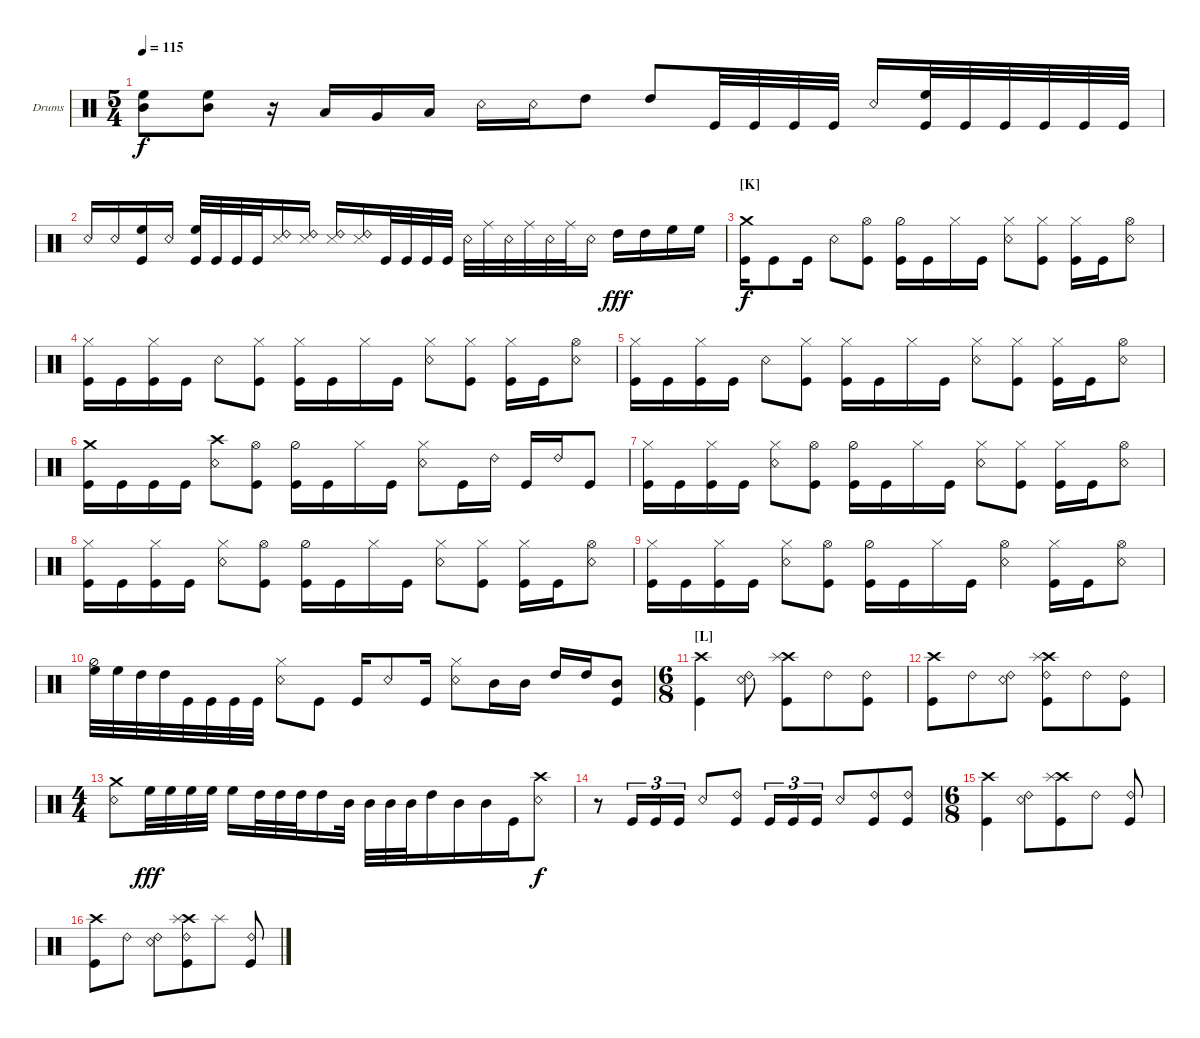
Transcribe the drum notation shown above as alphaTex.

\defaultSystemsLayout 4
\bracketExtendMode groupsimilarinstruments
\firstSystemTrackNameOrientation horizontal
\otherSystemsTrackNameOrientation horizontal
\track ("Drumkit" "Drums") {instrument percussion}
\staff {score}
\articulation defaults
\ts (5 4)
\tempo 115
\clef neutral
\scale
0.263889
\ks c
("High Floor Tom (hit)" "Mid Tom (hit)").8{dy f} ("High Floor Tom (hit)" "Mid Tom (hit)").8 r.16 "Low Tom (hit)".16 "Very Low Tom (hit)".16 "Low Tom (hit)".16 "Snare (rim shot)".16 "Snare (rim shot)".16 "High Tom (hit)".8 "High Tom (hit)".8 "Kick (hit)".32 "Kick (hit)".32 "Kick (hit)".32 "Kick (hit)".32 "Snare (rim shot)".16 ("High Floor Tom (hit)" "Kick (hit)").32 "Kick (hit)".32 "Kick (hit)".32 "Kick (hit)".32 "Kick (hit)".32 "Kick (hit)".32 |
\scale
0.263889 "Snare (rim shot)".16 "Snare (rim shot)".16 ("High Floor Tom (hit)" "Kick (hit)").16 "Snare (rim shot)".16 ("High Floor Tom (hit)" "Kick (hit)").32 "Kick (hit)".32 "Kick (hit)".32 "Kick (hit)".32 ("Snare (side stick) 3" "Ride (bell) 2").16 ("Snare (side stick) 3" "Ride (bell) 2").16 ("Snare (side stick) 3" "Ride (bell) 2").16 ("Snare (side stick) 3" "Ride (bell) 2").16 "Kick (hit)".32 "Kick (hit)".32 "Kick (hit)".32 "Kick (hit)".32 "Snare (rim shot)".32 "Ride (middle)".32 "Snare (rim shot)".32 "Ride (middle)".32 "Snare (rim shot)".32 "Ride (middle)".32 "Snare (rim shot)".16 "High Tom (hit)".16{dy fff} "High Tom (hit)".16 "High Floor Tom (hit)".16 "High Floor Tom (hit)".16 |
\section ("K" "")
\scale
0.333333 ("Kick (hit)" "Crash medium (hit)").16{dy f} "Kick (hit)".8 "Kick (hit)".16 "Snare (rim shot)".8 ("Hi-Hat (open)" "Kick (hit)").8 ("Kick (hit)" "Hi-Hat (half)").16 "Kick (hit)".16 "Hi-Hat (closed)".16 "Kick (hit)".16 ("Hi-Hat (closed)" "Snare (rim shot)").8 ("Hi-Hat (closed)" "Kick (hit)").8 ("Kick (hit)" "Hi-Hat (closed)").16 "Kick (hit)".16 ("Snare (rim shot)" "Hi-Hat (open)").8 |
\scale
0.333333 ("Kick (hit)" "Hi-Hat (closed)").16 "Kick (hit)".16 ("Kick (hit)" "Hi-Hat (closed)").16 "Kick (hit)".16 "Snare (rim shot)".8 ("Kick (hit)" "Hi-Hat (closed)").8 ("Kick (hit)" "Hi-Hat (closed)").16 "Kick (hit)".16 "Hi-Hat (closed)".16 "Kick (hit)".16 ("Hi-Hat (closed)" "Snare (rim shot)").8 ("Hi-Hat (closed)" "Kick (hit)").8 ("Kick (hit)" "Hi-Hat (closed)").16 "Kick (hit)".16 ("Snare (rim shot)" "Hi-Hat (open)").8 |
\scale
0.333333 ("Kick (hit)" "Hi-Hat (closed)").16 "Kick (hit)".16 ("Kick (hit)" "Hi-Hat (closed)").16 "Kick (hit)".16 "Snare (rim shot)".8 ("Kick (hit)" "Hi-Hat (closed)").8 ("Kick (hit)" "Hi-Hat (closed)").16 "Kick (hit)".16 "Hi-Hat (closed)".16 "Kick (hit)".16 ("Hi-Hat (closed)" "Snare (rim shot)").8 ("Hi-Hat (closed)" "Kick (hit)").8 ("Kick (hit)" "Hi-Hat (closed)").16 "Kick (hit)".16 ("Snare (rim shot)" "Hi-Hat (open)").8 |
\scale
0.333333 ("Kick (hit)" "Crash medium (hit)").16 "Kick (hit)".16 "Kick (hit)".16 "Kick (hit)".16 ("Snare (rim shot)" "Crash high (hit)").8 ("Kick (hit)" "Hi-Hat (open)").8 ("Kick (hit)" "Hi-Hat (half)").16 "Kick (hit)".16 "Hi-Hat (closed)".16 "Kick (hit)".16 ("Hi-Hat (closed)" "Snare (rim shot)").8 "Kick (hit)".16 "Ride (bell) 2".16 "Kick (hit)".16 "Ride (bell) 2".16 "Kick (hit)".8 |
\scale
0.333333 ("Kick (hit)" "Hi-Hat (closed)").16 "Kick (hit)".16 ("Kick (hit)" "Hi-Hat (closed)").16 "Kick (hit)".16 ("Snare (rim shot)" "Hi-Hat (closed)").8 ("Kick (hit)" "Hi-Hat (open)").8 ("Kick (hit)" "Hi-Hat (half)").16 "Kick (hit)".16 "Hi-Hat (closed)".16 "Kick (hit)".16 ("Snare (rim shot)" "Hi-Hat (closed)").8 ("Hi-Hat (closed)" "Kick (hit)").8 ("Kick (hit)" "Hi-Hat (closed)").16 "Kick (hit)".16 ("Snare (rim shot)" "Hi-Hat (open)").8 |
\scale
0.333333 ("Kick (hit)" "Hi-Hat (closed)").16 "Kick (hit)".16 ("Kick (hit)" "Hi-Hat (closed)").16 "Kick (hit)".16 ("Snare (rim shot)" "Hi-Hat (closed)").8 ("Kick (hit)" "Hi-Hat (open)").8 ("Kick (hit)" "Hi-Hat (half)").16 "Kick (hit)".16 "Hi-Hat (closed)".16 "Kick (hit)".16 ("Hi-Hat (closed)" "Snare (rim shot)").8 ("Hi-Hat (closed)" "Kick (hit)").8 ("Kick (hit)" "Hi-Hat (closed)").16 "Kick (hit)".16 ("Snare (rim shot)" "Hi-Hat (open)").8 |
\scale
0.263889 ("Kick (hit)" "Hi-Hat (closed)").16 "Kick (hit)".16 ("Kick (hit)" "Hi-Hat (closed)").16 "Kick (hit)".16 ("Snare (rim shot)" "Hi-Hat (closed)").8 ("Kick (hit)" "Hi-Hat (open)").8 ("Kick (hit)" "Hi-Hat (half)").16 "Kick (hit)".16 "Hi-Hat (closed)".16 "Kick (hit)".16 ("Hi-Hat (open)" "Snare (rim shot)").4 ("Kick (hit)" "Hi-Hat (closed)").16 "Kick (hit)".16 ("Snare (rim shot)" "Hi-Hat (open)").8 |
\scale
0.263889 ("Hi-Hat (half)" "High Floor Tom (hit)").32 "High Floor Tom (hit)".32 "High Tom (hit)".32 "High Tom (hit)".32 "Kick (hit)".32 "Kick (hit)".32 "Kick (hit)".32 "Kick (hit)".32 ("Snare (rim shot)" "Hi-Hat (closed)").8 "Kick (hit)".8 "Kick (hit)".16 "Snare (rim shot)".8 "Kick (hit)".16 ("Snare (rim shot)" "Hi-Hat (closed)").8 "Mid Tom (hit)".16 "Mid Tom (hit)".16 "High Tom (hit)".16 "High Tom (hit)".16 ("Mid Tom (hit)" "Kick (hit)").8 |
\ts (6 8)
\section ("L" "")
\scale
0.472222 ("Kick (hit)" "Crash high (hit)").4 ("Ride (bell) 2" "Snare (rim shot)").8 ("Crash high (hit)" "Splash (hit)" "Kick (hit)").8 "Ride (bell) 2".8 ("Ride (bell) 2" "Kick (hit)").8 |
\scale
0.263889 ("Kick (hit)" "Crash high (hit)").8 "Ride (bell) 2".8 ("Ride (bell) 2" "Snare (rim shot)").8 ("Crash high (hit)" "Splash (hit)" "Kick (hit)" "Ride (bell) 2").8 "Ride (bell) 2".8 ("Ride (bell) 2" "Kick (hit)").8 |
\ts (4 4)
\beaming (8 2 2 3 1)
\scale
0.472222 ("Snare (rim shot)" "Crash medium (hit)").8 "High Floor Tom (hit)".32{dy fff} "High Floor Tom (hit)".32 "High Floor Tom (hit)".32 "High Floor Tom (hit)".32 "High Floor Tom (hit)".16 "High Tom (hit)".32 "High Tom (hit)".32 "High Tom (hit)".32 "High Tom (hit)".16 "Mid Tom (hit)".32 "Mid Tom (hit)".32 "Mid Tom (hit)".32 "Mid Tom (hit)".32 "High Tom (hit)".16 "Mid Tom (hit)".16 "Mid Tom (hit)".16 "Kick (hit)".16 ("Snare (rim shot)" "Crash high (hit)").8{dy f} |
\beaming (8 2 3 3)
\scale
0.263889 r.8 "Kick (hit)".16{tu (3 2)} "Kick (hit)".16{tu (3 2)} "Kick (hit)".16{tu (3 2)} "Snare (rim shot)".8 ("Ride (bell) 2" "Kick (hit)").8 "Kick (hit)".16{tu (3 2)} "Kick (hit)".16{tu (3 2)} "Kick (hit)".16{tu (3 2)} "Snare (rim shot)".8 ("Ride (bell) 2" "Kick (hit)").8 ("Ride (bell) 2" "Kick (hit)").8 |
\ts (6 8)
\scale
0.390805 ("Kick (hit)" "Crash high (hit)").4 ("Ride (bell) 2" "Snare (rim shot)").8 ("Crash high (hit)" "Splash (hit)" "Kick (hit)").8 "Ride (bell) 2".8 ("Ride (bell) 2" "Kick (hit)").8 |
\scale
0.218391 ("Kick (hit)" "Crash high (hit)").8 "Ride (bell) 2".8 ("Ride (bell) 2" "Snare (rim shot)").8 ("Crash high (hit)" "Splash (hit)" "Kick (hit)" "Ride (bell) 2").8 "Splash (hit)".8 ("Ride (bell) 2" "Kick (hit)").8
